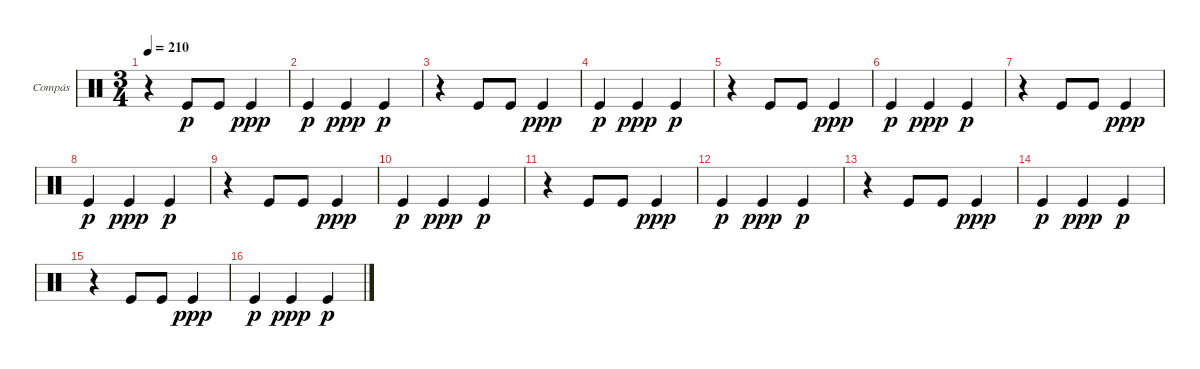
\defaultSystemsLayout 4
\bracketExtendMode groupsimilarinstruments
\firstSystemTrackNameOrientation horizontal
\otherSystemsTrackNameOrientation horizontal
\track ("Compás" "Compás") {instrument percussion}
\staff {score}
\articulation defaults
\ts (3 4)
\tempo 210
\clef neutral
\scale
0.373626
\ks c
r.4{dy p} "Kick (hit)".8 "Kick (hit)".8 "Kick (hit)".4{dy ppp} |
\scale
0.208791 "Kick (hit)".4{dy p} "Kick (hit)".4{dy ppp} "Kick (hit)".4{dy p} |
\scale
0.208791 r.4 "Kick (hit)".8 "Kick (hit)".8 "Kick (hit)".4{dy ppp} |
\scale
0.208791 "Kick (hit)".4{dy p} "Kick (hit)".4{dy ppp} "Kick (hit)".4{dy p} |
\scale
0.25 r.4 "Kick (hit)".8 "Kick (hit)".8 "Kick (hit)".4{dy ppp} |
\scale
0.25 "Kick (hit)".4{dy p} "Kick (hit)".4{dy ppp} "Kick (hit)".4{dy p} |
\scale
0.25 r.4 "Kick (hit)".8 "Kick (hit)".8 "Kick (hit)".4{dy ppp} |
\scale
0.25 "Kick (hit)".4{dy p} "Kick (hit)".4{dy ppp} "Kick (hit)".4{dy p} |
\scale
0.25 r.4 "Kick (hit)".8 "Kick (hit)".8 "Kick (hit)".4{dy ppp} |
\scale
0.25 "Kick (hit)".4{dy p} "Kick (hit)".4{dy ppp} "Kick (hit)".4{dy p} |
\scale
0.25 r.4 "Kick (hit)".8 "Kick (hit)".8 "Kick (hit)".4{dy ppp} |
\scale
0.25 "Kick (hit)".4{dy p} "Kick (hit)".4{dy ppp} "Kick (hit)".4{dy p} |
\scale
0.25 r.4 "Kick (hit)".8 "Kick (hit)".8 "Kick (hit)".4{dy ppp} |
\scale
0.25 "Kick (hit)".4{dy p} "Kick (hit)".4{dy ppp} "Kick (hit)".4{dy p} |
\scale
0.25 r.4 "Kick (hit)".8 "Kick (hit)".8 "Kick (hit)".4{dy ppp} |
\scale
0.25 "Kick (hit)".4{dy p} "Kick (hit)".4{dy ppp} "Kick (hit)".4{dy p}
